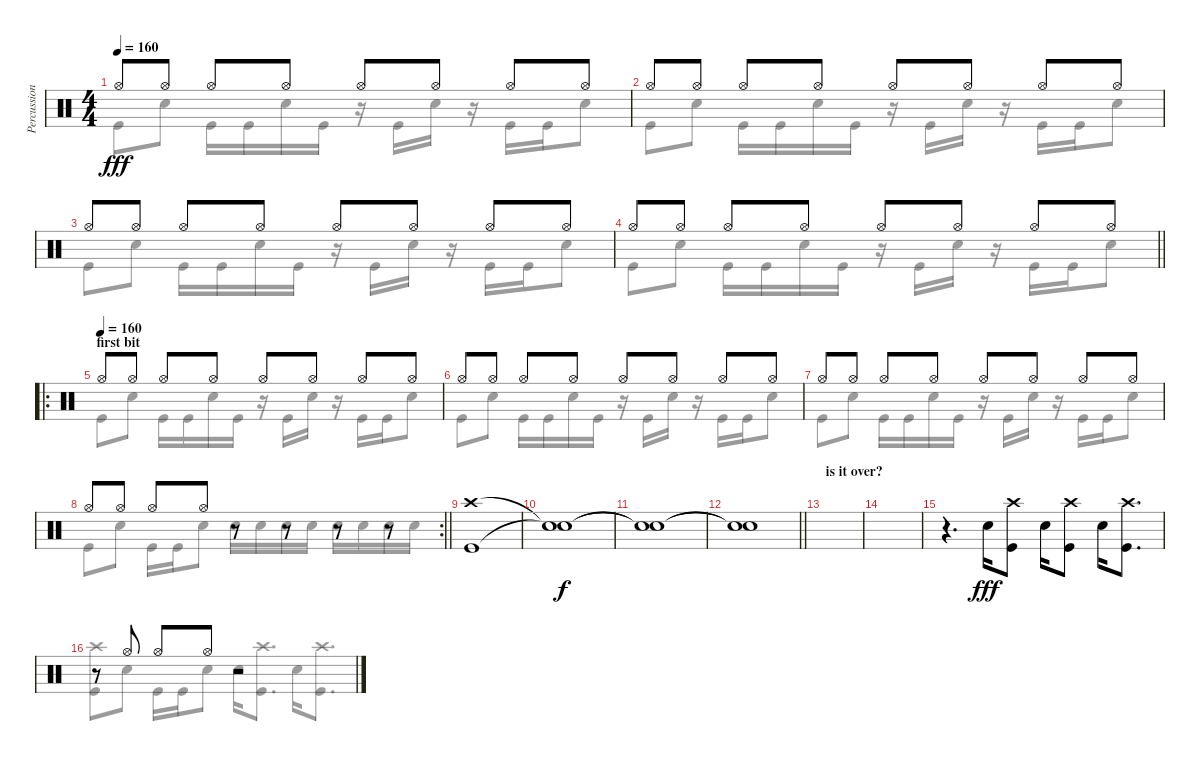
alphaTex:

\track ("Percussion" "Percussion") {instrument percussion}
\staff {score}
\articulation defaults
\voice
\ts (4 4)
\tempo 160
\clef neutral
\ks c "Hi-Hat (open)".8{dy fff} "Hi-Hat (open)".8 "Hi-Hat (open)".8 "Hi-Hat (open)".8 "Hi-Hat (open)".8 "Hi-Hat (open)".8 "Hi-Hat (open)".8 "Hi-Hat (open)".8
|
"Hi-Hat (open)".8 "Hi-Hat (open)".8 "Hi-Hat (open)".8 "Hi-Hat (open)".8 "Hi-Hat (open)".8 "Hi-Hat (open)".8 "Hi-Hat (open)".8 "Hi-Hat (open)".8 |
"Hi-Hat (open)".8 "Hi-Hat (open)".8 "Hi-Hat (open)".8 "Hi-Hat (open)".8 "Hi-Hat (open)".8 "Hi-Hat (open)".8 "Hi-Hat (open)".8 "Hi-Hat (open)".8 |
\barLineRight lightlight "Hi-Hat (open)".8 "Hi-Hat (open)".8 "Hi-Hat (open)".8 "Hi-Hat (open)".8 "Hi-Hat (open)".8 "Hi-Hat (open)".8 "Hi-Hat (open)".8 "Hi-Hat (open)".8
|
\ro
\section ("" "first bit")
\tempo (160)
"Hi-Hat (open)".8 "Hi-Hat (open)".8 "Hi-Hat (open)".8 "Hi-Hat (open)".8 "Hi-Hat (open)".8 "Hi-Hat (open)".8 "Hi-Hat (open)".8 "Hi-Hat (open)".8 |
"Hi-Hat (open)".8 "Hi-Hat (open)".8 "Hi-Hat (open)".8 "Hi-Hat (open)".8 "Hi-Hat (open)".8 "Hi-Hat (open)".8 "Hi-Hat (open)".8 "Hi-Hat (open)".8 |
"Hi-Hat (open)".8 "Hi-Hat (open)".8 "Hi-Hat (open)".8 "Hi-Hat (open)".8 "Hi-Hat (open)".8 "Hi-Hat (open)".8 "Hi-Hat (open)".8 "Hi-Hat (open)".8 |
\rc 2
\barLineRight lightlight "Hi-Hat (open)".8 "Hi-Hat (open)".8 "Hi-Hat (open)".8 "Hi-Hat (open)".8
r.8 r.8 r.8 r.8 |
("Crash high (hit)" "Kick (hit)").1 |
("Snare (hit)"{t} "Snare (hit)"{t}).1{dy f} |
("Snare (hit)"{t} "Snare (hit)"{t}).1 |
\barLineRight lightlight
("Snare (hit)"{t} "Snare (hit)"{t}).1 |
\section ("" "is it over?")
|
|
r.4{d} "Snare (hit) 2".16{dy fff} ("Crash high (hit)" "Kick (hit)").8 "Snare (hit) 2".16 ("Crash high (hit)" "Kick (hit)").8 "Snare (hit) 2".16 ("Crash high (hit)" "Kick (hit)").8{d} |
r.8 "Hi-Hat (open)".8 "Hi-Hat (open)".8 "Hi-Hat (open)".8 r.2
\voice
\clef neutral
\ottava regular
\simile none
\ks c "Kick (hit)".8{dy fff} "Snare (hit) 2".8 "Kick (hit)".16 "Kick (hit)".16 "Snare (hit) 2".16 "Kick (hit)".16
r.16 "Kick (hit)".16 "Snare (hit) 2".16 r.16 "Kick (hit)".16 "Kick (hit)".16 "Snare (hit) 2".8 |
"Kick (hit)".8 "Snare (hit) 2".8 "Kick (hit)".16 "Kick (hit)".16 "Snare (hit) 2".16 "Kick (hit)".16 r.16 "Kick (hit)".16 "Snare (hit) 2".16 r.16 "Kick (hit)".16 "Kick (hit)".16 "Snare (hit) 2".8 |
"Kick (hit)".8 "Snare (hit) 2".8 "Kick (hit)".16 "Kick (hit)".16 "Snare (hit) 2".16 "Kick (hit)".16 r.16 "Kick (hit)".16 "Snare (hit) 2".16 r.16 "Kick (hit)".16 "Kick (hit)".16 "Snare (hit) 2".8 |
\barLineRight lightlight "Kick (hit)".8 "Snare (hit) 2".8 "Kick (hit)".16 "Kick (hit)".16 "Snare (hit) 2".16 "Kick (hit)".16
r.16 "Kick (hit)".16 "Snare (hit) 2".16 r.16 "Kick (hit)".16 "Kick (hit)".16 "Snare (hit) 2".8 |
"Kick (hit)".8 "Snare (hit) 2".8 "Kick (hit)".16 "Kick (hit)".16 "Snare (hit) 2".16 "Kick (hit)".16 r.16 "Kick (hit)".16 "Snare (hit) 2".16 r.16 "Kick (hit)".16 "Kick (hit)".16 "Snare (hit) 2".8 |
"Kick (hit)".8 "Snare (hit) 2".8 "Kick (hit)".16 "Kick (hit)".16 "Snare (hit) 2".16 "Kick (hit)".16 r.16 "Kick (hit)".16 "Snare (hit) 2".16 r.16 "Kick (hit)".16 "Kick (hit)".16 "Snare (hit) 2".8 |
"Kick (hit)".8 "Snare (hit) 2".8 "Kick (hit)".16 "Kick (hit)".16 "Snare (hit) 2".16 "Kick (hit)".16 r.16 "Kick (hit)".16 "Snare (hit) 2".16 r.16 "Kick (hit)".16 "Kick (hit)".16 "Snare (hit) 2".8 |
\barLineRight lightlight "Kick (hit)".8 "Snare (hit) 2".8 "Kick (hit)".16 "Kick (hit)".16 "Snare (hit) 2".8 "Snare (hit) 2".16 "Snare (hit) 2".16 "Snare (hit) 2".16 "Snare (hit) 2".16 "Snare (hit) 2".16 "Snare (hit) 2".16 "Snare (hit) 2".16 "Snare (hit) 2".16
|
|
|
|
\barLineRight lightlight
|
|
|
|
("Crash high (hit)" "Kick (hit)").8 "Snare (hit) 2".8 "Kick (hit)".16 "Kick (hit)".16 "Snare (hit) 2".8 "Snare (hit) 2".16 ("Crash high (hit)" "Kick (hit)").8{d} "Snare (hit) 2".16 ("Crash high (hit)" "Kick (hit)").8{d}
